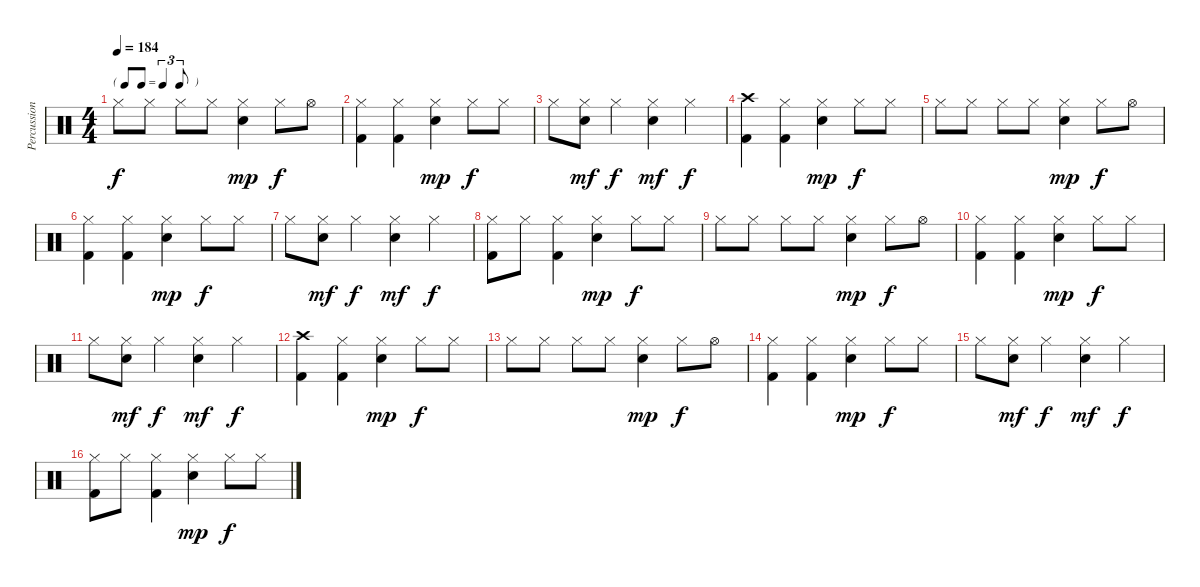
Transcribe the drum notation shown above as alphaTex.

\track ("Percussion" "Percussion") {instrument percussion}
\staff {score}
\articulation defaults
\ts (4 4)
\tf triplet8th
\tempo 184
\clef neutral
\ks c "Hi-Hat (closed)".8{dy f} "Hi-Hat (closed)".8 "Hi-Hat (closed)".8 "Hi-Hat (closed)".8
("Hi-Hat (closed)" "Electric Snare (hit)").4{dy mp} "Hi-Hat (closed)".8{dy f} "Hi-Hat (open)".8 |
("Hi-Hat (closed)" "Kick (hit) 2").4 ("Hi-Hat (closed)" "Kick (hit) 2").4 ("Hi-Hat (closed)" "Electric Snare (hit)").4{dy mp} "Hi-Hat (closed)".8{dy f} "Hi-Hat (closed)".8 |
"Hi-Hat (closed)".8 ("Hi-Hat (closed)" "Electric Snare (hit)").8{dy mf} "Hi-Hat (closed)".4{dy f} ("Hi-Hat (closed)" "Electric Snare (hit)").4{dy mf} "Hi-Hat (closed)".4{dy f} |
\section ("" "")
("Crash high (hit)" "Kick (hit) 2").4 ("Hi-Hat (closed)" "Kick (hit) 2").4 ("Hi-Hat (closed)" "Electric Snare (hit)").4{dy mp} "Hi-Hat (closed)".8{dy f} "Hi-Hat (closed)".8 |
"Hi-Hat (closed)".8 "Hi-Hat (closed)".8 "Hi-Hat (closed)".8 "Hi-Hat (closed)".8 ("Hi-Hat (closed)" "Electric Snare (hit)").4{dy mp} "Hi-Hat (closed)".8{dy f} "Hi-Hat (open)".8 |
("Hi-Hat (closed)" "Kick (hit) 2").4 ("Hi-Hat (closed)" "Kick (hit) 2").4 ("Hi-Hat (closed)" "Electric Snare (hit)").4{dy mp} "Hi-Hat (closed)".8{dy f} "Hi-Hat (closed)".8 |
"Hi-Hat (closed)".8 ("Hi-Hat (closed)" "Electric Snare (hit)").8{dy mf} "Hi-Hat (closed)".4{dy f} ("Hi-Hat (closed)" "Electric Snare (hit)").4{dy mf} "Hi-Hat (closed)".4{dy f} |
("Hi-Hat (closed)" "Kick (hit) 2").8 "Hi-Hat (closed)".8 ("Hi-Hat (closed)" "Kick (hit) 2").4 ("Hi-Hat (closed)" "Electric Snare (hit)").4{dy mp} "Hi-Hat (closed)".8{dy f} "Hi-Hat (closed)".8 |
"Hi-Hat (closed)".8 "Hi-Hat (closed)".8 "Hi-Hat (closed)".8 "Hi-Hat (closed)".8 ("Hi-Hat (closed)" "Electric Snare (hit)").4{dy mp} "Hi-Hat (closed)".8{dy f} "Hi-Hat (open)".8 |
("Hi-Hat (closed)" "Kick (hit) 2").4 ("Hi-Hat (closed)" "Kick (hit) 2").4 ("Hi-Hat (closed)" "Electric Snare (hit)").4{dy mp} "Hi-Hat (closed)".8{dy f} "Hi-Hat (closed)".8 |
"Hi-Hat (closed)".8 ("Hi-Hat (closed)" "Electric Snare (hit)").8{dy mf} "Hi-Hat (closed)".4{dy f} ("Hi-Hat (closed)" "Electric Snare (hit)").4{dy mf} "Hi-Hat (closed)".4{dy f} |
\section ("" "")
("Crash high (hit)" "Kick (hit) 2").4 ("Hi-Hat (closed)" "Kick (hit) 2").4 ("Hi-Hat (closed)" "Electric Snare (hit)").4{dy mp} "Hi-Hat (closed)".8{dy f} "Hi-Hat (closed)".8 |
"Hi-Hat (closed)".8 "Hi-Hat (closed)".8 "Hi-Hat (closed)".8 "Hi-Hat (closed)".8 ("Hi-Hat (closed)" "Electric Snare (hit)").4{dy mp} "Hi-Hat (closed)".8{dy f} "Hi-Hat (open)".8 |
("Hi-Hat (closed)" "Kick (hit) 2").4 ("Hi-Hat (closed)" "Kick (hit) 2").4 ("Hi-Hat (closed)" "Electric Snare (hit)").4{dy mp} "Hi-Hat (closed)".8{dy f} "Hi-Hat (closed)".8 |
"Hi-Hat (closed)".8 ("Hi-Hat (closed)" "Electric Snare (hit)").8{dy mf} "Hi-Hat (closed)".4{dy f} ("Hi-Hat (closed)" "Electric Snare (hit)").4{dy mf} "Hi-Hat (closed)".4{dy f} |
("Hi-Hat (closed)" "Kick (hit) 2").8 "Hi-Hat (closed)".8 ("Hi-Hat (closed)" "Kick (hit) 2").4 ("Hi-Hat (closed)" "Electric Snare (hit)").4{dy mp} "Hi-Hat (closed)".8{dy f} "Hi-Hat (closed)".8
